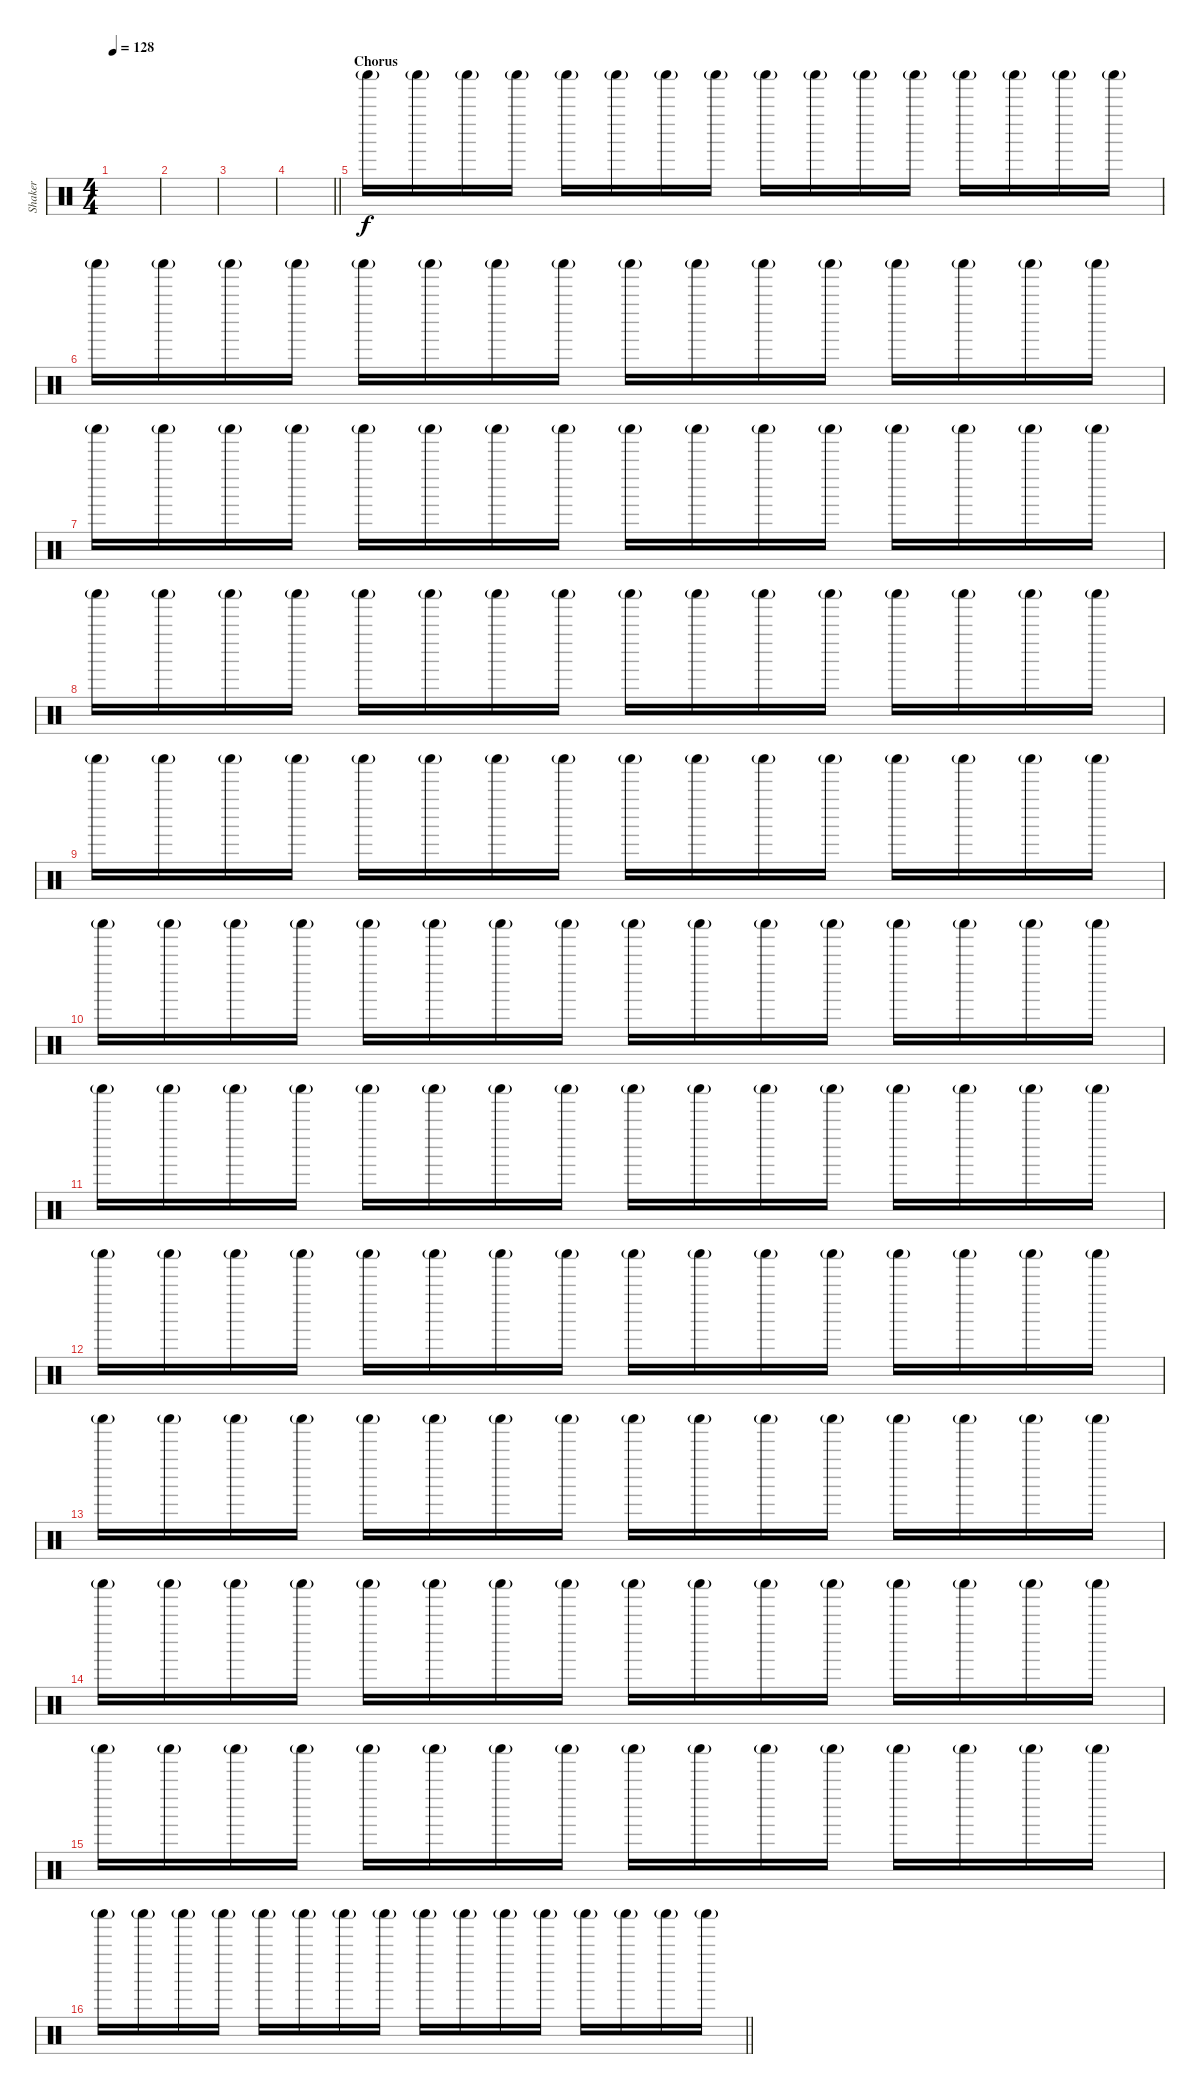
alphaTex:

\track ("Shaker" "Shaker") {instrument percussion}
\staff {score}
\articulation defaults
\ts (4 4)
\tempo 128
\clef neutral
\ks c
|
|
|
\barLineRight lightlight
|
\section ("" "Chorus")
"Shaker (hit)"{g}.16 "Shaker (hit)"{g}.16 "Shaker (hit)"{g}.16 "Shaker (hit)"{g}.16 "Shaker (hit)"{g}.16 "Shaker (hit)"{g}.16 "Shaker (hit)"{g}.16 "Shaker (hit)"{g}.16 "Shaker (hit)"{g}.16 "Shaker (hit)"{g}.16 "Shaker (hit)"{g}.16 "Shaker (hit)"{g}.16 "Shaker (hit)"{g}.16 "Shaker (hit)"{g}.16 "Shaker (hit)"{g}.16 "Shaker (hit)"{g}.16 |
"Shaker (hit)"{g}.16 "Shaker (hit)"{g}.16 "Shaker (hit)"{g}.16 "Shaker (hit)"{g}.16 "Shaker (hit)"{g}.16 "Shaker (hit)"{g}.16 "Shaker (hit)"{g}.16 "Shaker (hit)"{g}.16 "Shaker (hit)"{g}.16 "Shaker (hit)"{g}.16 "Shaker (hit)"{g}.16 "Shaker (hit)"{g}.16 "Shaker (hit)"{g}.16 "Shaker (hit)"{g}.16 "Shaker (hit)"{g}.16 "Shaker (hit)"{g}.16 |
"Shaker (hit)"{g}.16 "Shaker (hit)"{g}.16 "Shaker (hit)"{g}.16 "Shaker (hit)"{g}.16 "Shaker (hit)"{g}.16 "Shaker (hit)"{g}.16 "Shaker (hit)"{g}.16 "Shaker (hit)"{g}.16 "Shaker (hit)"{g}.16 "Shaker (hit)"{g}.16 "Shaker (hit)"{g}.16 "Shaker (hit)"{g}.16 "Shaker (hit)"{g}.16 "Shaker (hit)"{g}.16 "Shaker (hit)"{g}.16 "Shaker (hit)"{g}.16 |
"Shaker (hit)"{g}.16 "Shaker (hit)"{g}.16 "Shaker (hit)"{g}.16 "Shaker (hit)"{g}.16 "Shaker (hit)"{g}.16 "Shaker (hit)"{g}.16 "Shaker (hit)"{g}.16 "Shaker (hit)"{g}.16 "Shaker (hit)"{g}.16 "Shaker (hit)"{g}.16 "Shaker (hit)"{g}.16 "Shaker (hit)"{g}.16 "Shaker (hit)"{g}.16 "Shaker (hit)"{g}.16 "Shaker (hit)"{g}.16 "Shaker (hit)"{g}.16 |
"Shaker (hit)"{g}.16 "Shaker (hit)"{g}.16 "Shaker (hit)"{g}.16 "Shaker (hit)"{g}.16 "Shaker (hit)"{g}.16 "Shaker (hit)"{g}.16 "Shaker (hit)"{g}.16 "Shaker (hit)"{g}.16 "Shaker (hit)"{g}.16 "Shaker (hit)"{g}.16 "Shaker (hit)"{g}.16 "Shaker (hit)"{g}.16 "Shaker (hit)"{g}.16 "Shaker (hit)"{g}.16 "Shaker (hit)"{g}.16 "Shaker (hit)"{g}.16 |
"Shaker (hit)"{g}.16 "Shaker (hit)"{g}.16 "Shaker (hit)"{g}.16 "Shaker (hit)"{g}.16 "Shaker (hit)"{g}.16 "Shaker (hit)"{g}.16 "Shaker (hit)"{g}.16 "Shaker (hit)"{g}.16 "Shaker (hit)"{g}.16 "Shaker (hit)"{g}.16 "Shaker (hit)"{g}.16 "Shaker (hit)"{g}.16 "Shaker (hit)"{g}.16 "Shaker (hit)"{g}.16 "Shaker (hit)"{g}.16 "Shaker (hit)"{g}.16 |
"Shaker (hit)"{g}.16 "Shaker (hit)"{g}.16 "Shaker (hit)"{g}.16 "Shaker (hit)"{g}.16 "Shaker (hit)"{g}.16 "Shaker (hit)"{g}.16 "Shaker (hit)"{g}.16 "Shaker (hit)"{g}.16 "Shaker (hit)"{g}.16 "Shaker (hit)"{g}.16 "Shaker (hit)"{g}.16 "Shaker (hit)"{g}.16 "Shaker (hit)"{g}.16 "Shaker (hit)"{g}.16 "Shaker (hit)"{g}.16 "Shaker (hit)"{g}.16 |
"Shaker (hit)"{g}.16 "Shaker (hit)"{g}.16 "Shaker (hit)"{g}.16 "Shaker (hit)"{g}.16 "Shaker (hit)"{g}.16 "Shaker (hit)"{g}.16 "Shaker (hit)"{g}.16 "Shaker (hit)"{g}.16 "Shaker (hit)"{g}.16 "Shaker (hit)"{g}.16 "Shaker (hit)"{g}.16 "Shaker (hit)"{g}.16 "Shaker (hit)"{g}.16 "Shaker (hit)"{g}.16 "Shaker (hit)"{g}.16 "Shaker (hit)"{g}.16 |
"Shaker (hit)"{g}.16 "Shaker (hit)"{g}.16 "Shaker (hit)"{g}.16 "Shaker (hit)"{g}.16 "Shaker (hit)"{g}.16 "Shaker (hit)"{g}.16 "Shaker (hit)"{g}.16 "Shaker (hit)"{g}.16 "Shaker (hit)"{g}.16 "Shaker (hit)"{g}.16 "Shaker (hit)"{g}.16 "Shaker (hit)"{g}.16 "Shaker (hit)"{g}.16 "Shaker (hit)"{g}.16 "Shaker (hit)"{g}.16 "Shaker (hit)"{g}.16 |
"Shaker (hit)"{g}.16 "Shaker (hit)"{g}.16 "Shaker (hit)"{g}.16 "Shaker (hit)"{g}.16 "Shaker (hit)"{g}.16 "Shaker (hit)"{g}.16 "Shaker (hit)"{g}.16 "Shaker (hit)"{g}.16 "Shaker (hit)"{g}.16 "Shaker (hit)"{g}.16 "Shaker (hit)"{g}.16 "Shaker (hit)"{g}.16 "Shaker (hit)"{g}.16 "Shaker (hit)"{g}.16 "Shaker (hit)"{g}.16 "Shaker (hit)"{g}.16 |
"Shaker (hit)"{g}.16 "Shaker (hit)"{g}.16 "Shaker (hit)"{g}.16 "Shaker (hit)"{g}.16 "Shaker (hit)"{g}.16 "Shaker (hit)"{g}.16 "Shaker (hit)"{g}.16 "Shaker (hit)"{g}.16 "Shaker (hit)"{g}.16 "Shaker (hit)"{g}.16 "Shaker (hit)"{g}.16 "Shaker (hit)"{g}.16 "Shaker (hit)"{g}.16 "Shaker (hit)"{g}.16 "Shaker (hit)"{g}.16 "Shaker (hit)"{g}.16 |
\barLineRight lightlight "Shaker (hit)"{g}.16 "Shaker (hit)"{g}.16 "Shaker (hit)"{g}.16 "Shaker (hit)"{g}.16 "Shaker (hit)"{g}.16 "Shaker (hit)"{g}.16 "Shaker (hit)"{g}.16 "Shaker (hit)"{g}.16 "Shaker (hit)"{g}.16 "Shaker (hit)"{g}.16 "Shaker (hit)"{g}.16 "Shaker (hit)"{g}.16 "Shaker (hit)"{g}.16 "Shaker (hit)"{g}.16 "Shaker (hit)"{g}.16 "Shaker (hit)"{g}.16
